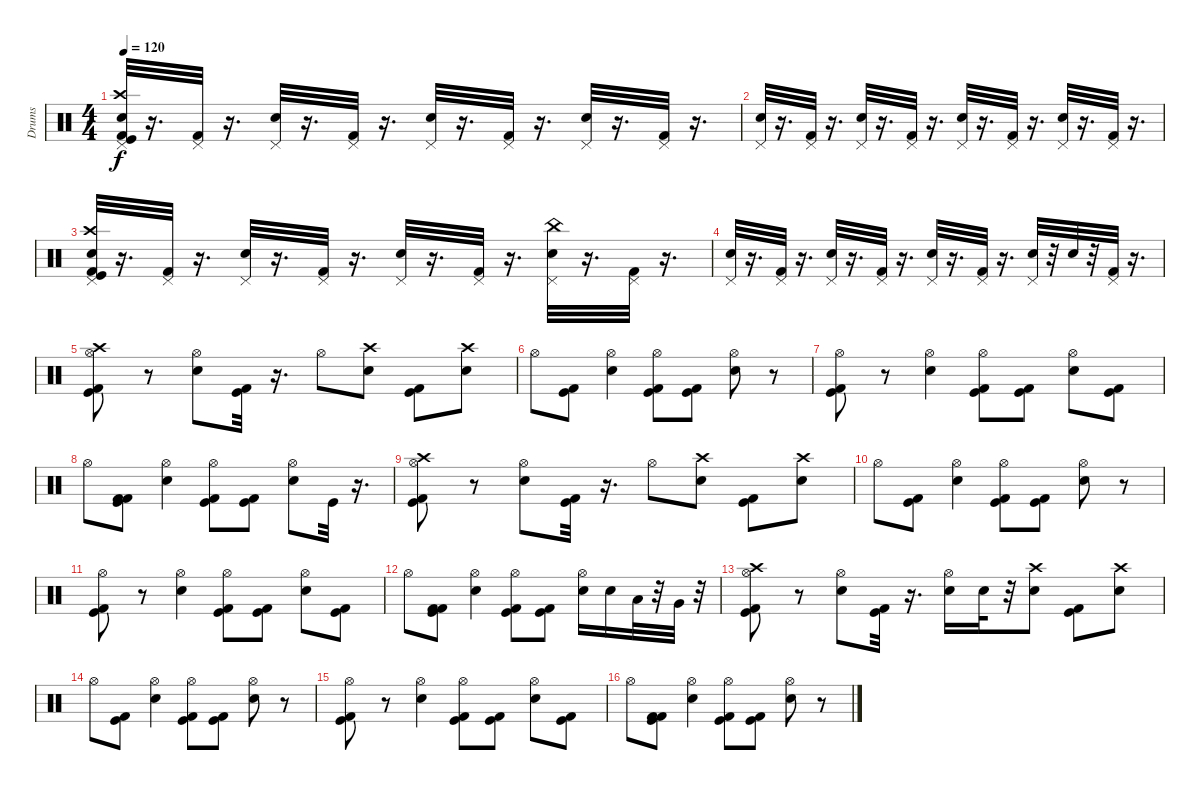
\track ("Drums" "Drums") {instrument percussion}
\staff {score}
\articulation defaults
\ts (4 4)
\tempo 120
\clef neutral
\ks c
("Kick (hit) 2" "Crash high (hit)" "Pedal Hi-Hat (hit)" "Snare (hit) 2" "Kick (hit)").32{dy f} r.16{d} ("Kick (hit) 2" "Pedal Hi-Hat (hit)").32 r.16{d} ("Pedal Hi-Hat (hit)" "Snare (hit) 2").32 r.16{d} ("Pedal Hi-Hat (hit)" "Kick (hit) 2").32 r.16{d} ("Snare (hit) 2" "Pedal Hi-Hat (hit)").32 r.16{d} ("Pedal Hi-Hat (hit)" "Kick (hit) 2").32 r.16{d} ("Pedal Hi-Hat (hit)" "Snare (hit) 2").32 r.16{d} ("Pedal Hi-Hat (hit)" "Kick (hit) 2").32 r.16{d} |
("Snare (hit) 2" "Pedal Hi-Hat (hit)").32 r.16{d} ("Kick (hit) 2" "Pedal Hi-Hat (hit)").32 r.16{d} ("Pedal Hi-Hat (hit)" "Snare (hit) 2").32 r.16{d} ("Pedal Hi-Hat (hit)" "Kick (hit) 2").32 r.16{d} ("Pedal Hi-Hat (hit)" "Snare (hit) 2").32 r.16{d} ("Pedal Hi-Hat (hit)" "Kick (hit) 2").32 r.16{d} ("Pedal Hi-Hat (hit)" "Snare (hit) 2").32 r.16{d} ("Kick (hit) 2" "Pedal Hi-Hat (hit)").32 r.16{d} |
("Snare (hit) 2" "Pedal Hi-Hat (hit)" "Crash high (hit)" "Kick (hit)" "Kick (hit) 2").32 r.16{d} ("Pedal Hi-Hat (hit)" "Kick (hit) 2").32 r.16{d} ("Pedal Hi-Hat (hit)" "Snare (hit) 2").32 r.16{d} ("Pedal Hi-Hat (hit)" "Kick (hit) 2").32 r.16{d} ("Pedal Hi-Hat (hit)" "Snare (hit) 2").32 r.16{d} ("Pedal Hi-Hat (hit)" "Kick (hit) 2").32 r.16{d} ("China (hit)" "Pedal Hi-Hat (hit)" "Snare (hit) 2").32 r.16{d} ("Pedal Hi-Hat (hit)" "Kick (hit) 2").32 r.16{d} |
("Snare (hit) 2" "Pedal Hi-Hat (hit)").32 r.16{d} ("Kick (hit) 2" "Pedal Hi-Hat (hit)").32 r.16{d} ("Snare (hit) 2" "Pedal Hi-Hat (hit)").32 r.16{d} ("Pedal Hi-Hat (hit)" "Kick (hit) 2").32 r.16{d} ("Snare (hit) 2" "Pedal Hi-Hat (hit)").32 r.16{d} ("Pedal Hi-Hat (hit)" "Kick (hit) 2").32 r.16{d} ("Snare (hit) 2" "Pedal Hi-Hat (hit)").32 r.32 "Snare (hit) 2".32 r.32 ("Kick (hit) 2" "Pedal Hi-Hat (hit)").32 r.16{d} |
("Crash high (hit)" "Kick (hit) 2" "Kick (hit)" "Hi-Hat (open)").8 r.8 ("Snare (hit) 2" "Hi-Hat (open)").8 ("Kick (hit) 2" "Kick (hit)").32 r.16{d} "Hi-Hat (open)".8 ("Snare (hit) 2" "Crash high (hit)").8 ("Kick (hit)" "Kick (hit) 2").8 ("Crash high (hit)" "Snare (hit) 2").8 |
"Hi-Hat (open)".8 ("Kick (hit)" "Kick (hit) 2").8 ("Hi-Hat (open)" "Snare (hit) 2").4 ("Kick (hit) 2" "Hi-Hat (open)" "Kick (hit)").8 ("Kick (hit)" "Kick (hit) 2").8 ("Hi-Hat (open)" "Snare (hit) 2").8 r.8 |
("Kick (hit)" "Hi-Hat (open)" "Kick (hit) 2").8 r.8 ("Hi-Hat (open)" "Snare (hit) 2").4 ("Hi-Hat (open)" "Kick (hit)" "Kick (hit) 2").8 ("Kick (hit)" "Kick (hit) 2").8 ("Snare (hit) 2" "Hi-Hat (open)").8 ("Kick (hit) 2" "Kick (hit)").8 |
"Hi-Hat (open)".8 ("Kick (hit) 2" "Kick (hit)" "Kick (hit) 2").8 ("Snare (hit) 2" "Hi-Hat (open)").4 ("Kick (hit)" "Kick (hit) 2" "Hi-Hat (open)").8 ("Kick (hit)" "Kick (hit) 2").8 ("Hi-Hat (open)" "Snare (hit) 2").8 "Kick (hit)".32 r.16{d} |
("Kick (hit)" "Kick (hit) 2" "Hi-Hat (open)" "Crash high (hit)").8 r.8 ("Snare (hit) 2" "Hi-Hat (open)").8 ("Kick (hit) 2" "Kick (hit)").32 r.16{d} "Hi-Hat (open)".8 ("Snare (hit) 2" "Crash high (hit)").8 ("Kick (hit) 2" "Kick (hit)").8 ("Crash high (hit)" "Snare (hit) 2").8 |
"Hi-Hat (open)".8 ("Kick (hit)" "Kick (hit) 2").8 ("Hi-Hat (open)" "Snare (hit) 2").4 ("Kick (hit)" "Kick (hit) 2" "Hi-Hat (open)").8 ("Kick (hit)" "Kick (hit) 2").8 ("Hi-Hat (open)" "Snare (hit) 2").8 r.8 |
("Kick (hit) 2" "Kick (hit)" "Hi-Hat (open)").8 r.8 ("Snare (hit) 2" "Hi-Hat (open)").4 ("Kick (hit) 2" "Kick (hit)" "Hi-Hat (open)").8 ("Kick (hit) 2" "Kick (hit)").8 ("Snare (hit) 2" "Hi-Hat (open)").8 ("Kick (hit) 2" "Kick (hit)").8 |
"Hi-Hat (open)".8 ("Kick (hit) 2" "Kick (hit) 2" "Kick (hit)").8 ("Hi-Hat (open)" "Snare (hit) 2").4 ("Kick (hit) 2" "Hi-Hat (open)" "Kick (hit)").8 ("Kick (hit) 2" "Kick (hit)").8 ("Hi-Hat (open)" "Snare (hit) 2").16 "Snare (hit) 2".16 "Low Tom (hit)".32 r.32 "Very Low Tom (hit)".32 r.32 |
("Kick (hit)" "Kick (hit) 2" "Hi-Hat (open)" "Crash high (hit)").8 r.8 ("Snare (hit) 2" "Hi-Hat (open)").8 ("Kick (hit) 2" "Kick (hit)").32 r.16{d} ("Snare (hit) 2" "Hi-Hat (open)").16 "Snare (hit) 2".32 r.32 ("Crash high (hit)" "Snare (hit) 2").8 ("Kick (hit)" "Kick (hit) 2").8 ("Snare (hit) 2" "Crash high (hit)").8 |
"Hi-Hat (open)".8 ("Kick (hit) 2" "Kick (hit)").8 ("Hi-Hat (open)" "Snare (hit) 2").4 ("Kick (hit)" "Kick (hit) 2" "Hi-Hat (open)").8 ("Kick (hit)" "Kick (hit) 2").8 ("Snare (hit) 2" "Hi-Hat (open)").8 r.8 |
("Kick (hit) 2" "Hi-Hat (open)" "Kick (hit)").8 r.8 ("Snare (hit) 2" "Hi-Hat (open)").4 ("Kick (hit)" "Kick (hit) 2" "Hi-Hat (open)").8 ("Kick (hit)" "Kick (hit) 2").8 ("Snare (hit) 2" "Hi-Hat (open)").8 ("Kick (hit)" "Kick (hit) 2").8 |
"Hi-Hat (open)".8 ("Kick (hit)" "Kick (hit) 2" "Kick (hit) 2").8 ("Hi-Hat (open)" "Snare (hit) 2").4 ("Kick (hit)" "Kick (hit) 2" "Hi-Hat (open)").8 ("Kick (hit)" "Kick (hit) 2").8 ("Snare (hit) 2" "Hi-Hat (open)").8 r.8
